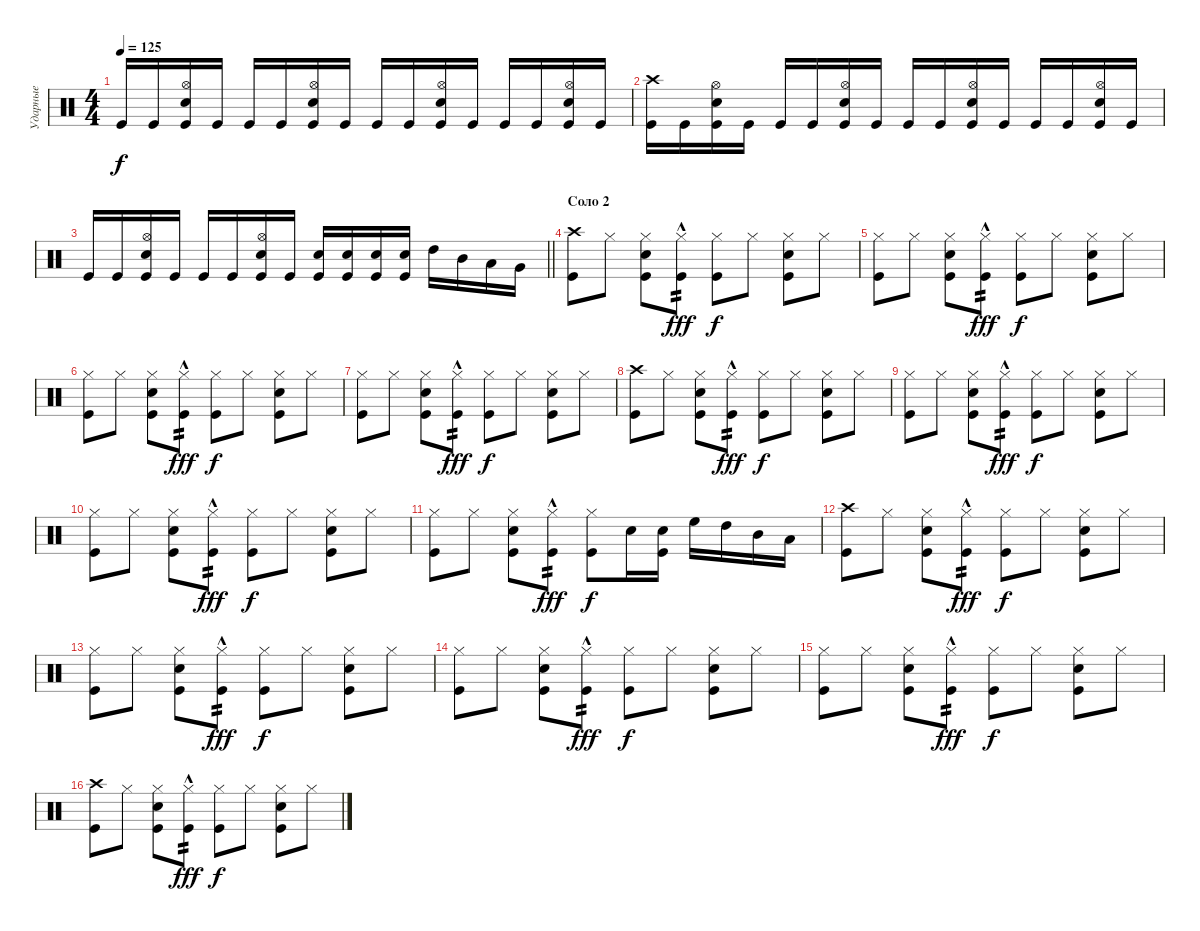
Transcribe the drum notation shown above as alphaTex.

\track ("Ударные" "Ударные") {instrument percussion}
\staff {score}
\articulation defaults
\ts (4 4)
\tempo 125
\clef neutral
\ks c "Kick (hit)".16{dy f} "Kick (hit)".16
("Hi-Hat (open)" "Snare (hit) 2" "Kick (hit)").16 "Kick (hit)".16 "Kick (hit)".16 "Kick (hit)".16 ("Hi-Hat (open)" "Snare (hit) 2" "Kick (hit)").16 "Kick (hit)".16 "Kick (hit)".16 "Kick (hit)".16 ("Hi-Hat (open)" "Snare (hit) 2" "Kick (hit)").16 "Kick (hit)".16 "Kick (hit)".16 "Kick (hit)".16 ("Hi-Hat (open)" "Snare (hit) 2" "Kick (hit)").16 "Kick (hit)".16 |
("Crash high (hit)" "Kick (hit)").16 "Kick (hit)".16 ("Hi-Hat (open)" "Snare (hit) 2" "Kick (hit)").16 "Kick (hit)".16 "Kick (hit)".16 "Kick (hit)".16 ("Hi-Hat (open)" "Snare (hit) 2" "Kick (hit)").16 "Kick (hit)".16 "Kick (hit)".16 "Kick (hit)".16 ("Hi-Hat (open)" "Snare (hit) 2" "Kick (hit)").16 "Kick (hit)".16 "Kick (hit)".16 "Kick (hit)".16 ("Hi-Hat (open)" "Snare (hit) 2" "Kick (hit)").16 "Kick (hit)".16 |
\barLineRight lightlight "Kick (hit)".16 "Kick (hit)".16
("Hi-Hat (open)" "Snare (hit) 2" "Kick (hit)").16 "Kick (hit)".16 "Kick (hit)".16 "Kick (hit)".16 ("Hi-Hat (open)" "Snare (hit) 2" "Kick (hit)").16 "Kick (hit)".16 ("Snare (hit) 2" "Kick (hit)").16 ("Snare (hit) 2" "Kick (hit)").16 ("Snare (hit) 2" "Kick (hit)").16 ("Snare (hit) 2" "Kick (hit)").16 "High Tom (hit)".16 "Mid Tom (hit)".16 "Low Tom (hit)".16 "Very Low Tom (hit)".16 |
\section ("" "Соло 2")
("Crash high (hit)" "Kick (hit)").8 "Hi-Hat (closed)".8 ("Hi-Hat (closed)" "Snare (hit) 2" "Kick (hit)").8 ("Hi-Hat (closed)" "Kick (hit)"{hac}).8{tp 2 dy fff} ("Hi-Hat (closed)" "Kick (hit)").8{dy f} "Hi-Hat (closed)".8 ("Hi-Hat (closed)" "Snare (hit) 2" "Kick (hit)").8 "Hi-Hat (closed)".8 |
("Hi-Hat (closed)" "Kick (hit)").8 "Hi-Hat (closed)".8 ("Hi-Hat (closed)" "Snare (hit) 2" "Kick (hit)").8 ("Hi-Hat (closed)" "Kick (hit)"{hac}).8{tp 2 dy fff} ("Hi-Hat (closed)" "Kick (hit)").8{dy f} "Hi-Hat (closed)".8 ("Hi-Hat (closed)" "Snare (hit) 2" "Kick (hit)").8 "Hi-Hat (closed)".8 |
("Hi-Hat (closed)" "Kick (hit)").8 "Hi-Hat (closed)".8 ("Hi-Hat (closed)" "Snare (hit) 2" "Kick (hit)").8 ("Hi-Hat (closed)" "Kick (hit)"{hac}).8{tp 2 dy fff} ("Hi-Hat (closed)" "Kick (hit)").8{dy f} "Hi-Hat (closed)".8 ("Hi-Hat (closed)" "Snare (hit) 2" "Kick (hit)").8 "Hi-Hat (closed)".8 |
("Hi-Hat (closed)" "Kick (hit)").8 "Hi-Hat (closed)".8 ("Hi-Hat (closed)" "Snare (hit) 2" "Kick (hit)").8 ("Hi-Hat (closed)" "Kick (hit)"{hac}).8{tp 2 dy fff} ("Hi-Hat (closed)" "Kick (hit)").8{dy f} "Hi-Hat (closed)".8 ("Hi-Hat (closed)" "Snare (hit) 2" "Kick (hit)").8 "Hi-Hat (closed)".8 |
("Crash high (hit)" "Kick (hit)").8 "Hi-Hat (closed)".8 ("Hi-Hat (closed)" "Snare (hit) 2" "Kick (hit)").8 ("Hi-Hat (closed)" "Kick (hit)"{hac}).8{tp 2 dy fff} ("Hi-Hat (closed)" "Kick (hit)").8{dy f} "Hi-Hat (closed)".8 ("Hi-Hat (closed)" "Snare (hit) 2" "Kick (hit)").8 "Hi-Hat (closed)".8 |
("Hi-Hat (closed)" "Kick (hit)").8 "Hi-Hat (closed)".8 ("Hi-Hat (closed)" "Snare (hit) 2" "Kick (hit)").8 ("Hi-Hat (closed)" "Kick (hit)"{hac}).8{tp 2 dy fff} ("Hi-Hat (closed)" "Kick (hit)").8{dy f} "Hi-Hat (closed)".8 ("Hi-Hat (closed)" "Snare (hit) 2" "Kick (hit)").8 "Hi-Hat (closed)".8 |
("Hi-Hat (closed)" "Kick (hit)").8 "Hi-Hat (closed)".8 ("Hi-Hat (closed)" "Snare (hit) 2" "Kick (hit)").8 ("Hi-Hat (closed)" "Kick (hit)"{hac}).8{tp 2 dy fff} ("Hi-Hat (closed)" "Kick (hit)").8{dy f} "Hi-Hat (closed)".8 ("Hi-Hat (closed)" "Snare (hit) 2" "Kick (hit)").8 "Hi-Hat (closed)".8 |
("Hi-Hat (closed)" "Kick (hit)").8 "Hi-Hat (closed)".8 ("Hi-Hat (closed)" "Snare (hit) 2" "Kick (hit)").8 ("Hi-Hat (closed)" "Kick (hit)"{hac}).8{tp 2 dy fff} ("Hi-Hat (closed)" "Kick (hit)").8{dy f} "Snare (hit) 2".16 ("Snare (hit) 2" "Kick (hit)").16 "High Floor Tom (hit)".16 "High Tom (hit)".16 "Mid Tom (hit)".16 "Low Tom (hit)".16 |
("Crash high (hit)" "Kick (hit)").8 "Hi-Hat (closed)".8 ("Hi-Hat (closed)" "Snare (hit) 2" "Kick (hit)").8 ("Hi-Hat (closed)" "Kick (hit)"{hac}).8{tp 2 dy fff} ("Hi-Hat (closed)" "Kick (hit)").8{dy f} "Hi-Hat (closed)".8 ("Hi-Hat (closed)" "Snare (hit) 2" "Kick (hit)").8 "Hi-Hat (closed)".8 |
("Hi-Hat (closed)" "Kick (hit)").8 "Hi-Hat (closed)".8 ("Hi-Hat (closed)" "Snare (hit) 2" "Kick (hit)").8 ("Hi-Hat (closed)" "Kick (hit)"{hac}).8{tp 2 dy fff} ("Hi-Hat (closed)" "Kick (hit)").8{dy f} "Hi-Hat (closed)".8 ("Hi-Hat (closed)" "Snare (hit) 2" "Kick (hit)").8 "Hi-Hat (closed)".8 |
("Hi-Hat (closed)" "Kick (hit)").8 "Hi-Hat (closed)".8 ("Hi-Hat (closed)" "Snare (hit) 2" "Kick (hit)").8 ("Hi-Hat (closed)" "Kick (hit)"{hac}).8{tp 2 dy fff} ("Hi-Hat (closed)" "Kick (hit)").8{dy f} "Hi-Hat (closed)".8 ("Hi-Hat (closed)" "Snare (hit) 2" "Kick (hit)").8 "Hi-Hat (closed)".8 |
("Hi-Hat (closed)" "Kick (hit)").8 "Hi-Hat (closed)".8 ("Hi-Hat (closed)" "Snare (hit) 2" "Kick (hit)").8 ("Hi-Hat (closed)" "Kick (hit)"{hac}).8{tp 2 dy fff} ("Hi-Hat (closed)" "Kick (hit)").8{dy f} "Hi-Hat (closed)".8 ("Hi-Hat (closed)" "Snare (hit) 2" "Kick (hit)").8 "Hi-Hat (closed)".8 |
("Crash high (hit)" "Kick (hit)").8 "Hi-Hat (closed)".8 ("Hi-Hat (closed)" "Snare (hit) 2" "Kick (hit)").8 ("Hi-Hat (closed)" "Kick (hit)"{hac}).8{tp 2 dy fff} ("Hi-Hat (closed)" "Kick (hit)").8{dy f} "Hi-Hat (closed)".8 ("Hi-Hat (closed)" "Snare (hit) 2" "Kick (hit)").8 "Hi-Hat (closed)".8
